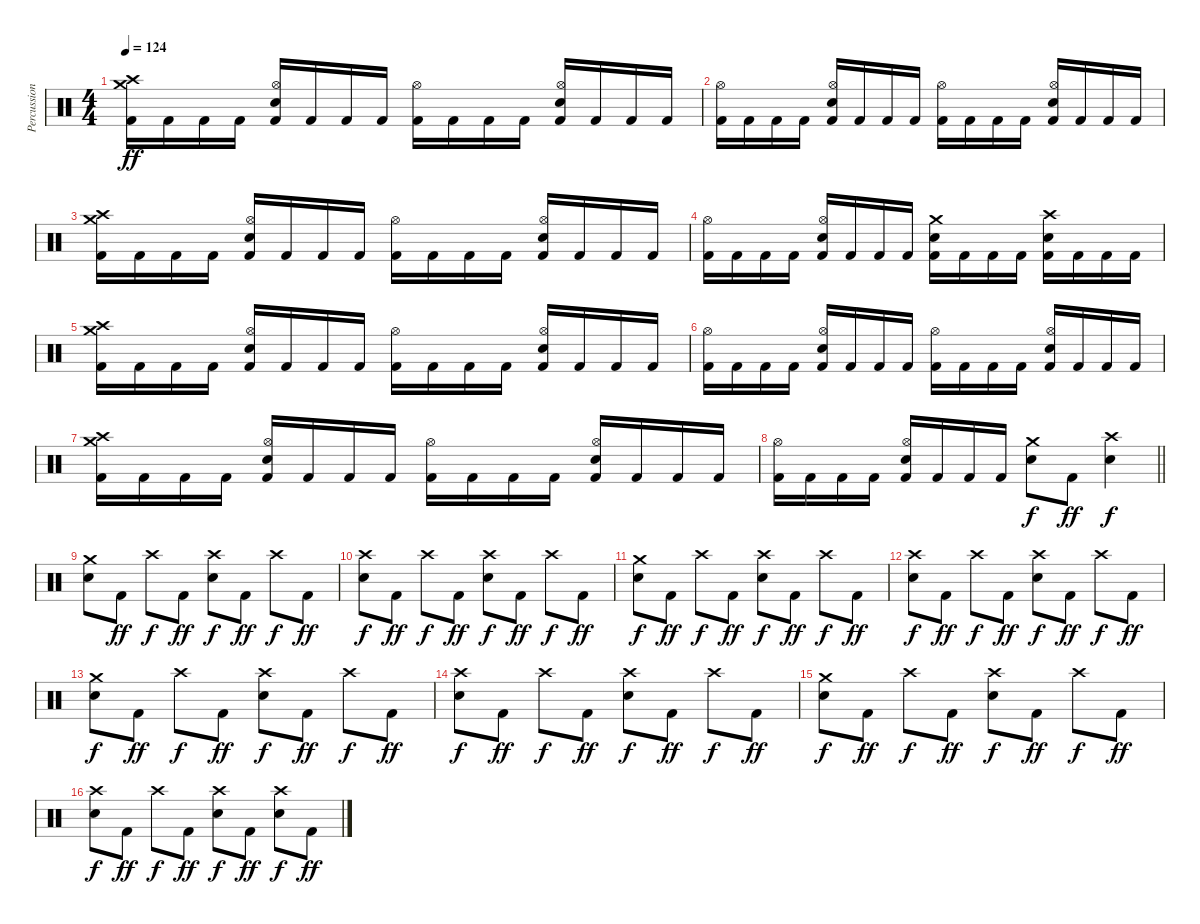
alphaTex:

\track ("Percussion" "Percussion") {instrument percussion}
\staff {score}
\articulation defaults
\ts (4 4)
\tempo 124
\clef neutral
\ks c
("Crash medium (hit)" "Crash high (hit)" "Kick (hit) 2").16{dy ff} "Kick (hit) 2".16 "Kick (hit) 2".16 "Kick (hit) 2".16 ("Hi-Hat (open)" "Electric Snare (hit)" "Kick (hit) 2").16 "Kick (hit) 2".16 "Kick (hit) 2".16 "Kick (hit) 2".16 ("Hi-Hat (open)" "Kick (hit) 2").16 "Kick (hit) 2".16 "Kick (hit) 2".16 "Kick (hit) 2".16 ("Hi-Hat (open)" "Electric Snare (hit)" "Kick (hit) 2").16 "Kick (hit) 2".16 "Kick (hit) 2".16 "Kick (hit) 2".16 |
("Hi-Hat (open)" "Kick (hit) 2").16 "Kick (hit) 2".16 "Kick (hit) 2".16 "Kick (hit) 2".16 ("Hi-Hat (open)" "Electric Snare (hit)" "Kick (hit) 2").16 "Kick (hit) 2".16 "Kick (hit) 2".16 "Kick (hit) 2".16 ("Hi-Hat (open)" "Kick (hit) 2").16 "Kick (hit) 2".16 "Kick (hit) 2".16 "Kick (hit) 2".16 ("Hi-Hat (open)" "Electric Snare (hit)" "Kick (hit) 2").16 "Kick (hit) 2".16 "Kick (hit) 2".16 "Kick (hit) 2".16 |
("Crash medium (hit)" "Crash high (hit)" "Kick (hit) 2").16 "Kick (hit) 2".16 "Kick (hit) 2".16 "Kick (hit) 2".16 ("Hi-Hat (open)" "Electric Snare (hit)" "Kick (hit) 2").16 "Kick (hit) 2".16 "Kick (hit) 2".16 "Kick (hit) 2".16 ("Hi-Hat (open)" "Kick (hit) 2").16 "Kick (hit) 2".16 "Kick (hit) 2".16 "Kick (hit) 2".16 ("Hi-Hat (open)" "Electric Snare (hit)" "Kick (hit) 2").16 "Kick (hit) 2".16 "Kick (hit) 2".16 "Kick (hit) 2".16 |
("Hi-Hat (open)" "Kick (hit) 2").16 "Kick (hit) 2".16 "Kick (hit) 2".16 "Kick (hit) 2".16 ("Hi-Hat (open)" "Electric Snare (hit)" "Kick (hit) 2").16 "Kick (hit) 2".16 "Kick (hit) 2".16 "Kick (hit) 2".16 ("Crash medium (hit)" "Electric Snare (hit)" "Kick (hit) 2").16 "Kick (hit) 2".16 "Kick (hit) 2".16 "Kick (hit) 2".16 ("Crash high (hit)" "Electric Snare (hit)" "Kick (hit) 2").16 "Kick (hit) 2".16 "Kick (hit) 2".16 "Kick (hit) 2".16 |
("Crash medium (hit)" "Crash high (hit)" "Kick (hit) 2").16 "Kick (hit) 2".16 "Kick (hit) 2".16 "Kick (hit) 2".16 ("Hi-Hat (open)" "Electric Snare (hit)" "Kick (hit) 2").16 "Kick (hit) 2".16 "Kick (hit) 2".16 "Kick (hit) 2".16 ("Hi-Hat (open)" "Kick (hit) 2").16 "Kick (hit) 2".16 "Kick (hit) 2".16 "Kick (hit) 2".16 ("Hi-Hat (open)" "Electric Snare (hit)" "Kick (hit) 2").16 "Kick (hit) 2".16 "Kick (hit) 2".16 "Kick (hit) 2".16 |
("Hi-Hat (open)" "Kick (hit) 2").16 "Kick (hit) 2".16 "Kick (hit) 2".16 "Kick (hit) 2".16 ("Hi-Hat (open)" "Electric Snare (hit)" "Kick (hit) 2").16 "Kick (hit) 2".16 "Kick (hit) 2".16 "Kick (hit) 2".16 ("Hi-Hat (open)" "Kick (hit) 2").16 "Kick (hit) 2".16 "Kick (hit) 2".16 "Kick (hit) 2".16 ("Hi-Hat (open)" "Electric Snare (hit)" "Kick (hit) 2").16 "Kick (hit) 2".16 "Kick (hit) 2".16 "Kick (hit) 2".16 |
("Crash medium (hit)" "Crash high (hit)" "Kick (hit) 2").16 "Kick (hit) 2".16 "Kick (hit) 2".16 "Kick (hit) 2".16 ("Hi-Hat (open)" "Electric Snare (hit)" "Kick (hit) 2").16 "Kick (hit) 2".16 "Kick (hit) 2".16 "Kick (hit) 2".16 ("Hi-Hat (open)" "Kick (hit) 2").16 "Kick (hit) 2".16 "Kick (hit) 2".16 "Kick (hit) 2".16 ("Hi-Hat (open)" "Electric Snare (hit)" "Kick (hit) 2").16 "Kick (hit) 2".16 "Kick (hit) 2".16 "Kick (hit) 2".16 |
\barLineRight lightlight
("Hi-Hat (open)" "Kick (hit) 2").16 "Kick (hit) 2".16 "Kick (hit) 2".16 "Kick (hit) 2".16 ("Hi-Hat (open)" "Electric Snare (hit)" "Kick (hit) 2").16 "Kick (hit) 2".16 "Kick (hit) 2".16 "Kick (hit) 2".16 ("Crash medium (hit)" "Electric Snare (hit)").8{dy f} "Kick (hit) 2".8{dy ff} ("Crash high (hit)" "Electric Snare (hit)").4{dy f} |
("Crash medium (hit)" "Electric Snare (hit)").8 "Kick (hit) 2".8{dy ff} "Crash high (hit)".8{dy f} "Kick (hit) 2".8{dy ff} ("Crash high (hit)" "Electric Snare (hit)").8{dy f} "Kick (hit) 2".8{dy ff} "Crash high (hit)".8{dy f} "Kick (hit) 2".8{dy ff} |
("Crash high (hit)" "Electric Snare (hit)").8{dy f} "Kick (hit) 2".8{dy ff} "Crash high (hit)".8{dy f} "Kick (hit) 2".8{dy ff} ("Crash high (hit)" "Electric Snare (hit)").8{dy f} "Kick (hit) 2".8{dy ff} "Crash high (hit)".8{dy f} "Kick (hit) 2".8{dy ff} |
("Crash medium (hit)" "Electric Snare (hit)").8{dy f} "Kick (hit) 2".8{dy ff} "Crash high (hit)".8{dy f} "Kick (hit) 2".8{dy ff} ("Crash high (hit)" "Electric Snare (hit)").8{dy f} "Kick (hit) 2".8{dy ff} "Crash high (hit)".8{dy f} "Kick (hit) 2".8{dy ff} |
("Crash high (hit)" "Electric Snare (hit)").8{dy f} "Kick (hit) 2".8{dy ff} "Crash high (hit)".8{dy f} "Kick (hit) 2".8{dy ff} ("Crash high (hit)" "Electric Snare (hit)").8{dy f} "Kick (hit) 2".8{dy ff} "Crash high (hit)".8{dy f} "Kick (hit) 2".8{dy ff} |
("Crash medium (hit)" "Electric Snare (hit)").8{dy f} "Kick (hit) 2".8{dy ff} "Crash high (hit)".8{dy f} "Kick (hit) 2".8{dy ff} ("Crash high (hit)" "Electric Snare (hit)").8{dy f} "Kick (hit) 2".8{dy ff} "Crash high (hit)".8{dy f} "Kick (hit) 2".8{dy ff} |
("Crash high (hit)" "Electric Snare (hit)").8{dy f} "Kick (hit) 2".8{dy ff} "Crash high (hit)".8{dy f} "Kick (hit) 2".8{dy ff} ("Crash high (hit)" "Electric Snare (hit)").8{dy f} "Kick (hit) 2".8{dy ff} "Crash high (hit)".8{dy f} "Kick (hit) 2".8{dy ff} |
("Crash medium (hit)" "Electric Snare (hit)").8{dy f} "Kick (hit) 2".8{dy ff} "Crash high (hit)".8{dy f} "Kick (hit) 2".8{dy ff} ("Crash high (hit)" "Electric Snare (hit)").8{dy f} "Kick (hit) 2".8{dy ff} "Crash high (hit)".8{dy f} "Kick (hit) 2".8{dy ff} |
("Crash high (hit)" "Electric Snare (hit)").8{dy f} "Kick (hit) 2".8{dy ff} "Crash high (hit)".8{dy f} "Kick (hit) 2".8{dy ff} ("Crash high (hit)" "Electric Snare (hit)").8{dy f} "Kick (hit) 2".8{dy ff} ("Crash high (hit)" "Electric Snare (hit)").8{dy f} "Kick (hit) 2".8{dy ff}
